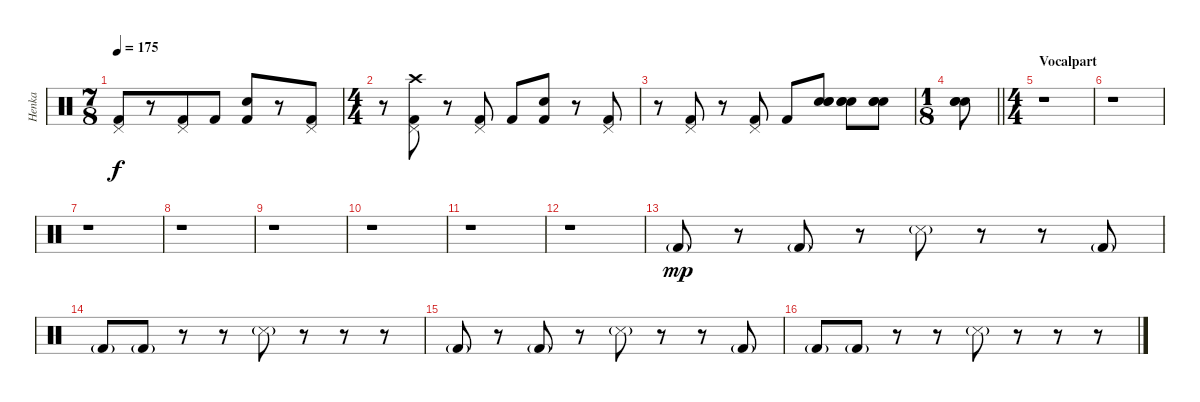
\track ("Henka" "Henka") {instrument percussion}
\staff {score}
\articulation defaults
\ts (7 8)
\tempo 175
\clef neutral
\ks c
("Pedal Hi-Hat (hit)" "Kick (hit) 2").8{dy f} r.8 ("Pedal Hi-Hat (hit)" "Kick (hit) 2").8 "Kick (hit) 2".8 ("Snare (hit) 2" "Kick (hit) 2").8 r.8 ("Pedal Hi-Hat (hit)" "Kick (hit) 2").8 |
\ts (4 4)
r.8 ("Crash high (hit)" "Pedal Hi-Hat (hit)" "Kick (hit) 2").8 r.8 ("Pedal Hi-Hat (hit)" "Kick (hit) 2").8 "Kick (hit) 2".8 ("Snare (hit) 2" "Kick (hit) 2").8 r.8 ("Pedal Hi-Hat (hit)" "Kick (hit) 2").8 |
r.8 ("Pedal Hi-Hat (hit)" "Kick (hit) 2").8 r.8 ("Pedal Hi-Hat (hit)" "Kick (hit) 2").8 "Kick (hit) 2".8 ("Snare (hit) 2" "Electric Snare (hit)" "Snare (hit) 2").8 ("Snare (hit) 2" "Electric Snare (hit)" "Snare (hit) 2").8 ("Snare (hit) 2" "Electric Snare (hit)" "Snare (hit) 2").8 |
\ts (1 8)
\barLineRight lightlight
("Snare (hit) 2" "Electric Snare (hit)" "Snare (hit) 2").8 |
\ts (4 4)
\section ("" "Vocalpart")
r.1 |
r.1 |
r.1 |
r.1 |
r.1 |
r.1 |
r.1 |
r.1 |
"Kick (hit) 2"{g}.8{dy mp} r.8 "Kick (hit) 2"{g}.8 r.8 "Metronome (hit)"{g}.8 r.8 r.8 "Kick (hit) 2"{g}.8 |
"Kick (hit) 2"{g}.8 "Kick (hit) 2"{g}.8 r.8 r.8 "Metronome (hit)"{g}.8 r.8 r.8 r.8 |
"Kick (hit) 2"{g}.8 r.8 "Kick (hit) 2"{g}.8 r.8 "Metronome (hit)"{g}.8 r.8 r.8 "Kick (hit) 2"{g}.8 |
"Kick (hit) 2"{g}.8 "Kick (hit) 2"{g}.8 r.8 r.8 "Metronome (hit)"{g}.8 r.8 r.8 r.8
